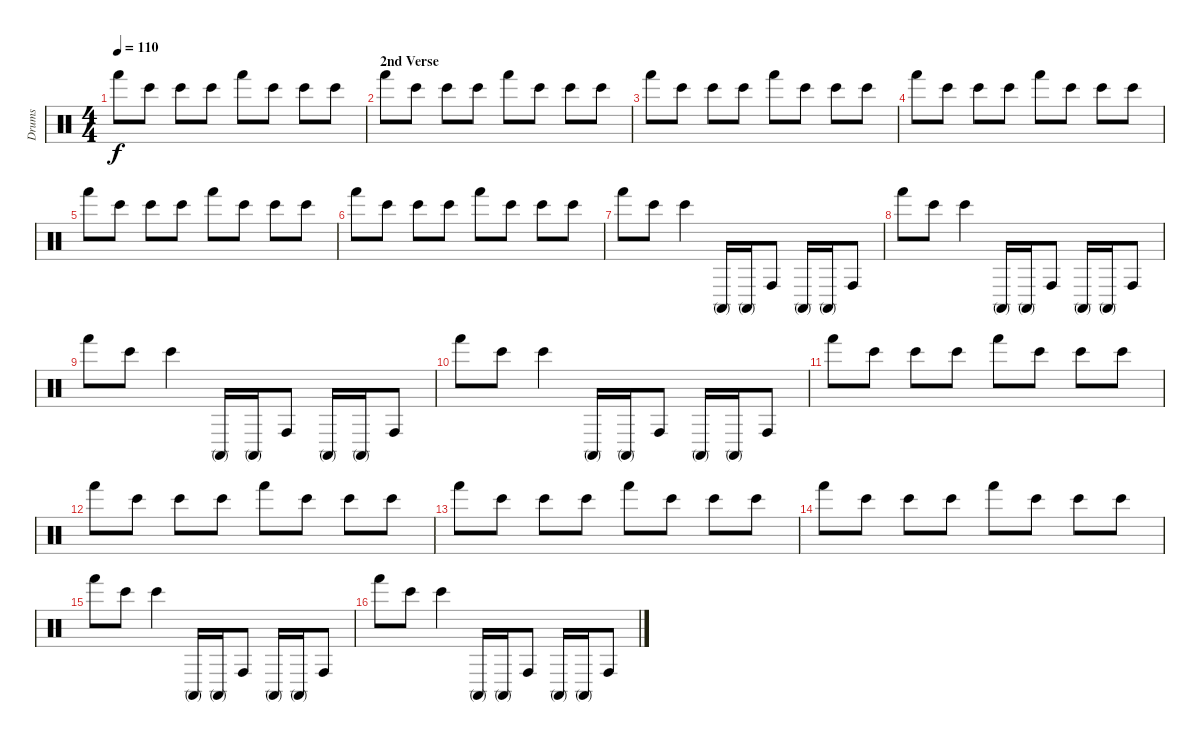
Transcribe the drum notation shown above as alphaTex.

\track ("Drums" "Drums") {instrument percussion}
\staff {score}
\articulation defaults
\ts (4 4)
\tempo 110
\clef neutral
\ks c "Hand (hit)".8{dy f} "Bongo High (hit)".8 "Bongo High (hit)".8 "Bongo High (hit)".8 "Hand (hit)".8 "Bongo High (hit)".8 "Bongo High (hit)".8 "Bongo High (hit)".8
|
\section ("" "2nd Verse")
"Hand (hit)".8 "Bongo High (hit)".8 "Bongo High (hit)".8 "Bongo High (hit)".8 "Hand (hit)".8 "Bongo High (hit)".8 "Bongo High (hit)".8 "Bongo High (hit)".8 |
"Hand (hit)".8 "Bongo High (hit)".8 "Bongo High (hit)".8 "Bongo High (hit)".8 "Hand (hit)".8 "Bongo High (hit)".8 "Bongo High (hit)".8 "Bongo High (hit)".8 |
"Hand (hit)".8 "Bongo High (hit)".8 "Bongo High (hit)".8 "Bongo High (hit)".8 "Hand (hit)".8 "Bongo High (hit)".8 "Bongo High (hit)".8 "Bongo High (hit)".8 |
"Hand (hit)".8 "Bongo High (hit)".8 "Bongo High (hit)".8 "Bongo High (hit)".8 "Hand (hit)".8 "Bongo High (hit)".8 "Bongo High (hit)".8 "Bongo High (hit)".8 |
"Hand (hit)".8 "Bongo High (hit)".8 "Bongo High (hit)".8 "Bongo High (hit)".8 "Hand (hit)".8 "Bongo High (hit)".8 "Bongo High (hit)".8 "Bongo High (hit)".8 |
"Hand (hit)".8 "Bongo High (hit)".8 "Bongo High (hit)".4 "Conga high (mute)".16 "Conga high (mute)".16 "Conga high (hit)".8 "Conga high (mute)".16 "Conga high (mute)".16 "Conga high (hit)".8 |
"Hand (hit)".8 "Bongo High (hit)".8 "Bongo High (hit)".4 "Conga high (mute)".16 "Conga high (mute)".16 "Conga high (hit)".8 "Conga high (mute)".16 "Conga high (mute)".16 "Conga high (hit)".8 |
"Hand (hit)".8 "Bongo High (hit)".8 "Bongo High (hit)".4 "Conga high (mute)".16 "Conga high (mute)".16 "Conga high (hit)".8 "Conga high (mute)".16 "Conga high (mute)".16 "Conga high (hit)".8 |
"Hand (hit)".8 "Bongo High (hit)".8 "Bongo High (hit)".4 "Conga high (mute)".16 "Conga high (mute)".16 "Conga high (hit)".8 "Conga high (mute)".16 "Conga high (mute)".16 "Conga high (hit)".8 |
"Hand (hit)".8 "Bongo High (hit)".8 "Bongo High (hit)".8 "Bongo High (hit)".8 "Hand (hit)".8 "Bongo High (hit)".8 "Bongo High (hit)".8 "Bongo High (hit)".8 |
"Hand (hit)".8 "Bongo High (hit)".8 "Bongo High (hit)".8 "Bongo High (hit)".8 "Hand (hit)".8 "Bongo High (hit)".8 "Bongo High (hit)".8 "Bongo High (hit)".8 |
"Hand (hit)".8 "Bongo High (hit)".8 "Bongo High (hit)".8 "Bongo High (hit)".8 "Hand (hit)".8 "Bongo High (hit)".8 "Bongo High (hit)".8 "Bongo High (hit)".8 |
"Hand (hit)".8 "Bongo High (hit)".8 "Bongo High (hit)".8 "Bongo High (hit)".8 "Hand (hit)".8 "Bongo High (hit)".8 "Bongo High (hit)".8 "Bongo High (hit)".8 |
"Hand (hit)".8 "Bongo High (hit)".8 "Bongo High (hit)".4 "Conga high (mute)".16 "Conga high (mute)".16 "Conga high (hit)".8 "Conga high (mute)".16 "Conga high (mute)".16 "Conga high (hit)".8 |
"Hand (hit)".8 "Bongo High (hit)".8 "Bongo High (hit)".4 "Conga high (mute)".16 "Conga high (mute)".16 "Conga high (hit)".8 "Conga high (mute)".16 "Conga high (mute)".16 "Conga high (hit)".8
